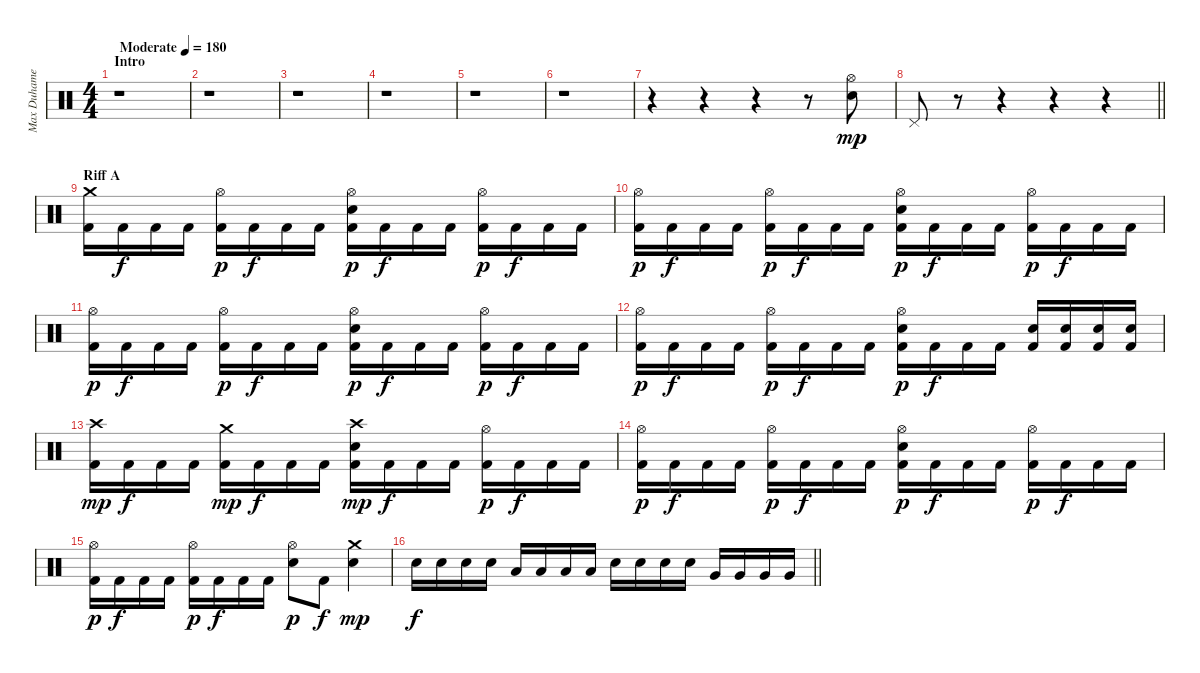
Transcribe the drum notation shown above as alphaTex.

\track ("Max Duhamel" "Max Duhame") {instrument percussion}
\staff {score}
\articulation defaults
\ts (4 4)
\section ("" "Intro")
\tempo (180 "Moderate")
\clef neutral
\ks c
r.1{dy mp} |
r.1 |
r.1 |
r.1 |
r.1 |
r.1 |
r.4 r.4 r.4 r.8 ("Hi-Hat (open)" "Electric Snare (hit)").8 |
\barLineRight lightlight "Pedal Hi-Hat (hit)".8
r.8 r.4 r.4 r.4 |
\section ("" "Riff A")
("Crash medium (hit)" "Kick (hit) 2").16 "Kick (hit) 2".16{dy f} "Kick (hit) 2".16 "Kick (hit) 2".16 ("Hi-Hat (open)" "Kick (hit) 2").16{dy p} "Kick (hit) 2".16{dy f} "Kick (hit) 2".16 "Kick (hit) 2".16 ("Hi-Hat (open)" "Electric Snare (hit)" "Kick (hit) 2").16{dy p} "Kick (hit) 2".16{dy f} "Kick (hit) 2".16 "Kick (hit) 2".16 ("Hi-Hat (open)" "Kick (hit) 2").16{dy p} "Kick (hit) 2".16{dy f} "Kick (hit) 2".16 "Kick (hit) 2".16 |
("Hi-Hat (open)" "Kick (hit) 2").16{dy p} "Kick (hit) 2".16{dy f} "Kick (hit) 2".16 "Kick (hit) 2".16 ("Hi-Hat (open)" "Kick (hit) 2").16{dy p} "Kick (hit) 2".16{dy f} "Kick (hit) 2".16 "Kick (hit) 2".16 ("Hi-Hat (open)" "Electric Snare (hit)" "Kick (hit) 2").16{dy p} "Kick (hit) 2".16{dy f} "Kick (hit) 2".16 "Kick (hit) 2".16 ("Hi-Hat (open)" "Kick (hit) 2").16{dy p} "Kick (hit) 2".16{dy f} "Kick (hit) 2".16 "Kick (hit) 2".16 |
("Hi-Hat (open)" "Kick (hit) 2").16{dy p} "Kick (hit) 2".16{dy f} "Kick (hit) 2".16 "Kick (hit) 2".16 ("Hi-Hat (open)" "Kick (hit) 2").16{dy p} "Kick (hit) 2".16{dy f} "Kick (hit) 2".16 "Kick (hit) 2".16 ("Hi-Hat (open)" "Electric Snare (hit)" "Kick (hit) 2").16{dy p} "Kick (hit) 2".16{dy f} "Kick (hit) 2".16 "Kick (hit) 2".16 ("Hi-Hat (open)" "Kick (hit) 2").16{dy p} "Kick (hit) 2".16{dy f} "Kick (hit) 2".16 "Kick (hit) 2".16 |
("Hi-Hat (open)" "Kick (hit) 2").16{dy p} "Kick (hit) 2".16{dy f} "Kick (hit) 2".16 "Kick (hit) 2".16 ("Hi-Hat (open)" "Kick (hit) 2").16{dy p} "Kick (hit) 2".16{dy f} "Kick (hit) 2".16 "Kick (hit) 2".16 ("Hi-Hat (open)" "Electric Snare (hit)" "Kick (hit) 2").16{dy p} "Kick (hit) 2".16{dy f} "Kick (hit) 2".16 "Kick (hit) 2".16 ("Electric Snare (hit)" "Kick (hit) 2").16 ("Electric Snare (hit)" "Kick (hit) 2").16 ("Electric Snare (hit)" "Kick (hit) 2").16 ("Electric Snare (hit)" "Kick (hit) 2").16 |
("Crash high (hit)" "Kick (hit) 2").16{dy mp} "Kick (hit) 2".16{dy f} "Kick (hit) 2".16 "Kick (hit) 2".16 ("Crash medium (hit)" "Kick (hit) 2").16{dy mp} "Kick (hit) 2".16{dy f} "Kick (hit) 2".16 "Kick (hit) 2".16 ("Crash high (hit)" "Electric Snare (hit)" "Kick (hit) 2").16{dy mp} "Kick (hit) 2".16{dy f} "Kick (hit) 2".16 "Kick (hit) 2".16 ("Hi-Hat (open)" "Kick (hit) 2").16{dy p} "Kick (hit) 2".16{dy f} "Kick (hit) 2".16 "Kick (hit) 2".16 |
("Hi-Hat (open)" "Kick (hit) 2").16{dy p} "Kick (hit) 2".16{dy f} "Kick (hit) 2".16 "Kick (hit) 2".16 ("Hi-Hat (open)" "Kick (hit) 2").16{dy p} "Kick (hit) 2".16{dy f} "Kick (hit) 2".16 "Kick (hit) 2".16 ("Hi-Hat (open)" "Electric Snare (hit)" "Kick (hit) 2").16{dy p} "Kick (hit) 2".16{dy f} "Kick (hit) 2".16 "Kick (hit) 2".16 ("Hi-Hat (open)" "Kick (hit) 2").16{dy p} "Kick (hit) 2".16{dy f} "Kick (hit) 2".16 "Kick (hit) 2".16 |
("Hi-Hat (open)" "Kick (hit) 2").16{dy p} "Kick (hit) 2".16{dy f} "Kick (hit) 2".16 "Kick (hit) 2".16 ("Hi-Hat (open)" "Kick (hit) 2").16{dy p} "Kick (hit) 2".16{dy f} "Kick (hit) 2".16 "Kick (hit) 2".16 ("Hi-Hat (open)" "Electric Snare (hit)").8{dy p} "Kick (hit) 2".8{dy f} ("Crash medium (hit)" "Electric Snare (hit)").4{dy mp} |
\barLineRight lightlight "Electric Snare (hit)".16{dy f} "Electric Snare (hit)".16 "Electric Snare (hit)".16 "Electric Snare (hit)".16 "Low Tom (hit)".16 "Low Tom (hit)".16 "Low Tom (hit)".16 "Low Tom (hit)".16 "Electric Snare (hit)".16 "Electric Snare (hit)".16 "Electric Snare (hit)".16 "Electric Snare (hit)".16 "Very Low Tom (hit)".16 "Very Low Tom (hit)".16 "Very Low Tom (hit)".16 "Very Low Tom (hit)".16
